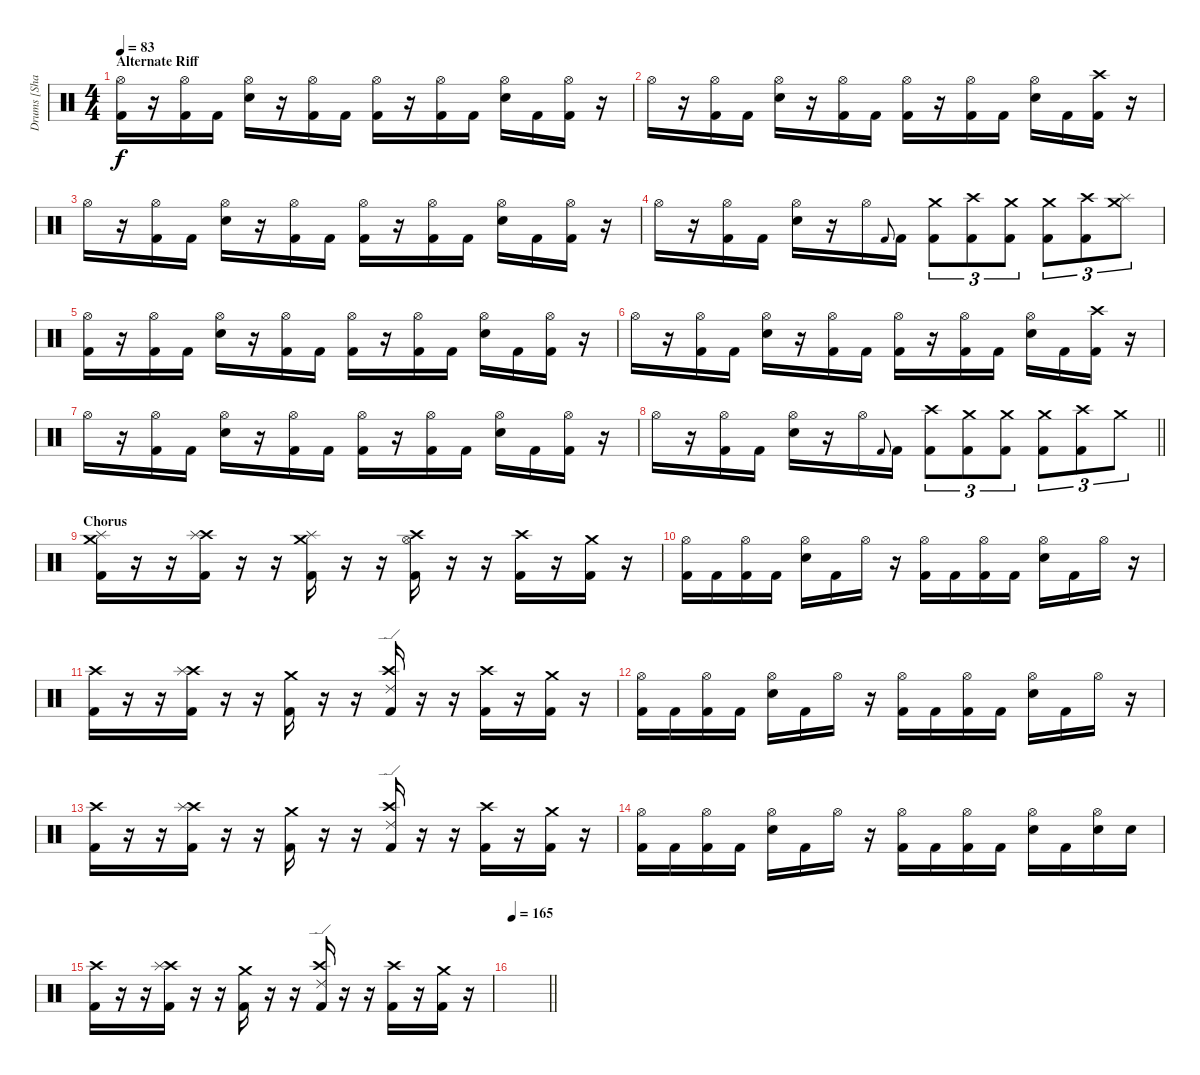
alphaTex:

\track ("Drums [Shawn Drover]" "Drums [Sha") {instrument percussion}
\staff {score}
\articulation defaults
\ts (4 4)
\section ("" "Alternate Riff")
\tempo 83
\clef neutral
\ks c
("Hi-Hat (open)" "Kick (hit) 2").16{dy f} r.16 ("Hi-Hat (open)" "Kick (hit) 2").16 "Kick (hit) 2".16 ("Hi-Hat (open)" "Electric Snare (hit)").16 r.16 ("Hi-Hat (open)" "Kick (hit) 2").16 "Kick (hit) 2".16 ("Hi-Hat (open)" "Kick (hit) 2").16 r.16 ("Hi-Hat (open)" "Kick (hit) 2").16 "Kick (hit) 2".16 ("Hi-Hat (open)" "Electric Snare (hit)").16 "Kick (hit) 2".16 ("Hi-Hat (open)" "Kick (hit) 2").16 r.16 |
"Hi-Hat (open)".16 r.16 ("Hi-Hat (open)" "Kick (hit) 2").16 "Kick (hit) 2".16 ("Hi-Hat (open)" "Electric Snare (hit)").16 r.16 ("Hi-Hat (open)" "Kick (hit) 2").16 "Kick (hit) 2".16 ("Hi-Hat (open)" "Kick (hit) 2").16 r.16 ("Hi-Hat (open)" "Kick (hit) 2").16 "Kick (hit) 2".16 ("Hi-Hat (open)" "Electric Snare (hit)").16 "Kick (hit) 2".16 ("Crash high (hit)" "Kick (hit) 2").16 r.16 |
"Hi-Hat (open)".16 r.16 ("Hi-Hat (open)" "Kick (hit) 2").16 "Kick (hit) 2".16 ("Hi-Hat (open)" "Electric Snare (hit)").16 r.16 ("Hi-Hat (open)" "Kick (hit) 2").16 "Kick (hit) 2".16 ("Hi-Hat (open)" "Kick (hit) 2").16 r.16 ("Hi-Hat (open)" "Kick (hit) 2").16 "Kick (hit) 2".16 ("Hi-Hat (open)" "Electric Snare (hit)").16 "Kick (hit) 2".16 ("Hi-Hat (open)" "Kick (hit) 2").16 r.16 |
"Hi-Hat (open)".16 r.16 ("Hi-Hat (open)" "Kick (hit) 2").16 "Kick (hit) 2".16 ("Hi-Hat (open)" "Electric Snare (hit)").16 r.16 "Hi-Hat (open)".16 "Kick (hit) 2".8{gr onbeat} "Kick (hit) 2".16 ("Crash medium (hit)" "Kick (hit) 2").8{tu (3 2)} ("Crash high (hit)" "Kick (hit) 2").8{tu (3 2)} ("Crash medium (hit)" "Kick (hit) 2").8{tu (3 2)} ("Crash medium (hit)" "Kick (hit) 2").8{tu (3 2)} ("Crash high (hit)" "Kick (hit) 2").8{tu (3 2)} ("Splash (hit)" "Crash medium (hit)").8{tu (3 2)} |
("Hi-Hat (open)" "Kick (hit) 2").16 r.16 ("Hi-Hat (open)" "Kick (hit) 2").16 "Kick (hit) 2".16 ("Hi-Hat (open)" "Electric Snare (hit)").16 r.16 ("Hi-Hat (open)" "Kick (hit) 2").16 "Kick (hit) 2".16 ("Hi-Hat (open)" "Kick (hit) 2").16 r.16 ("Hi-Hat (open)" "Kick (hit) 2").16 "Kick (hit) 2".16 ("Hi-Hat (open)" "Electric Snare (hit)").16 "Kick (hit) 2".16 ("Hi-Hat (open)" "Kick (hit) 2").16 r.16 |
"Hi-Hat (open)".16 r.16 ("Hi-Hat (open)" "Kick (hit) 2").16 "Kick (hit) 2".16 ("Hi-Hat (open)" "Electric Snare (hit)").16 r.16 ("Hi-Hat (open)" "Kick (hit) 2").16 "Kick (hit) 2".16 ("Hi-Hat (open)" "Kick (hit) 2").16 r.16 ("Hi-Hat (open)" "Kick (hit) 2").16 "Kick (hit) 2".16 ("Hi-Hat (open)" "Electric Snare (hit)").16 "Kick (hit) 2".16 ("Crash high (hit)" "Kick (hit) 2").16 r.16 |
"Hi-Hat (open)".16 r.16 ("Hi-Hat (open)" "Kick (hit) 2").16 "Kick (hit) 2".16 ("Hi-Hat (open)" "Electric Snare (hit)").16 r.16 ("Hi-Hat (open)" "Kick (hit) 2").16 "Kick (hit) 2".16 ("Hi-Hat (open)" "Kick (hit) 2").16 r.16 ("Hi-Hat (open)" "Kick (hit) 2").16 "Kick (hit) 2".16 ("Hi-Hat (open)" "Electric Snare (hit)").16 "Kick (hit) 2".16 ("Hi-Hat (open)" "Kick (hit) 2").16 r.16 |
\barLineRight lightlight "Hi-Hat (open)".16
r.16 ("Hi-Hat (open)" "Kick (hit) 2").16 "Kick (hit) 2".16 ("Hi-Hat (open)" "Electric Snare (hit)").16 r.16 "Hi-Hat (open)".16 "Kick (hit) 2".8{gr onbeat} "Kick (hit) 2".16 ("Crash high (hit)" "Kick (hit) 2").8{tu (3 2)} ("Crash medium (hit)" "Kick (hit) 2").8{tu (3 2)} ("Crash medium (hit)" "Kick (hit) 2").8{tu (3 2)} ("Crash medium (hit)" "Kick (hit) 2").8{tu (3 2)} ("Crash high (hit)" "Kick (hit) 2").8{tu (3 2)} "Crash medium (hit)".8{tu (3 2)} |
\section ("" "Chorus")
("Crash medium (hit)" "Splash (hit)" "Kick (hit) 2").16 r.16 r.16 ("Crash high (hit)" "Splash (hit)" "Kick (hit) 2").16 r.16 r.16 ("Crash medium (hit)" "Splash (hit)" "Kick (hit) 2").16 r.16 r.16 ("Crash high (hit)" "Hi-Hat (open)" "Kick (hit) 2").16 r.16 r.16 ("Crash high (hit)" "Kick (hit) 2").16 r.16 ("Crash medium (hit)" "Kick (hit) 2").16 r.16 |
("Hi-Hat (open)" "Kick (hit) 2").16 "Kick (hit) 2".16 ("Hi-Hat (open)" "Kick (hit) 2").16 "Kick (hit) 2".16 ("Hi-Hat (open)" "Electric Snare (hit)").16 "Kick (hit) 2".16 "Hi-Hat (open)".16 r.16 ("Hi-Hat (open)" "Kick (hit) 2").16 "Kick (hit) 2".16 ("Hi-Hat (open)" "Kick (hit) 2").16 "Kick (hit) 2".16 ("Hi-Hat (open)" "Electric Snare (hit)").16 "Kick (hit) 2".16 "Hi-Hat (open)".16 r.16 |
("Crash high (hit)" "Kick (hit) 2").16 r.16 r.16 ("Crash high (hit)" "Splash (hit)" "Kick (hit) 2").16 r.16 r.16 ("Crash medium (hit)" "Kick (hit) 2").16 r.16 r.16 ("Crash high (hit)" "Ride (edge) 2" "Kick (hit) 2").16 r.16 r.16 ("Crash high (hit)" "Kick (hit) 2").16 r.16 ("Crash medium (hit)" "Kick (hit) 2").16 r.16 |
("Hi-Hat (open)" "Kick (hit) 2").16 "Kick (hit) 2".16 ("Hi-Hat (open)" "Kick (hit) 2").16 "Kick (hit) 2".16 ("Hi-Hat (open)" "Electric Snare (hit)").16 "Kick (hit) 2".16 "Hi-Hat (open)".16 r.16 ("Hi-Hat (open)" "Kick (hit) 2").16 "Kick (hit) 2".16 ("Hi-Hat (open)" "Kick (hit) 2").16 "Kick (hit) 2".16 ("Hi-Hat (open)" "Electric Snare (hit)").16 "Kick (hit) 2".16 "Hi-Hat (open)".16 r.16 |
("Crash high (hit)" "Kick (hit) 2").16 r.16 r.16 ("Crash high (hit)" "Splash (hit)" "Kick (hit) 2").16 r.16 r.16 ("Crash medium (hit)" "Kick (hit) 2").16 r.16 r.16 ("Crash high (hit)" "Ride (edge) 2" "Kick (hit) 2").16 r.16 r.16 ("Crash high (hit)" "Kick (hit) 2").16 r.16 ("Crash medium (hit)" "Kick (hit) 2").16 r.16 |
("Hi-Hat (open)" "Kick (hit) 2").16 "Kick (hit) 2".16 ("Hi-Hat (open)" "Kick (hit) 2").16 "Kick (hit) 2".16 ("Hi-Hat (open)" "Electric Snare (hit)").16 "Kick (hit) 2".16 "Hi-Hat (open)".16 r.16 ("Hi-Hat (open)" "Kick (hit) 2").16 "Kick (hit) 2".16 ("Hi-Hat (open)" "Kick (hit) 2").16 "Kick (hit) 2".16 ("Hi-Hat (open)" "Electric Snare (hit)").16 "Kick (hit) 2".16 ("Hi-Hat (open)" "Electric Snare (hit)").16 "Electric Snare (hit)".16 |
("Crash high (hit)" "Kick (hit) 2").16 r.16 r.16 ("Crash high (hit)" "Splash (hit)" "Kick (hit) 2").16 r.16 r.16 ("Crash medium (hit)" "Kick (hit) 2").16 r.16 r.16 ("Crash high (hit)" "Ride (edge) 2" "Kick (hit) 2").16 r.16 r.16 ("Crash high (hit)" "Kick (hit) 2").16 r.16 ("Crash medium (hit)" "Kick (hit) 2").16 r.16 |
\tempo 165
\barLineRight lightlight
